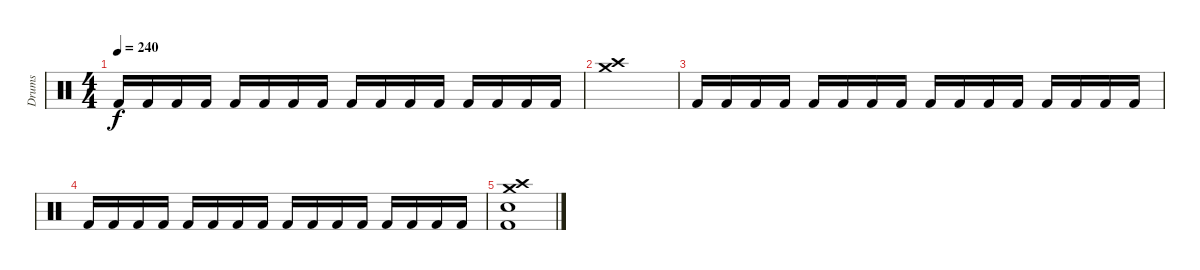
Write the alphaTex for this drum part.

\track ("Drums" "Drums") {instrument percussion}
\staff {score}
\articulation defaults
\ts (4 4)
\tempo 240
\clef neutral
\ks c "Kick (hit) 2".16{dy f} "Kick (hit) 2".16 "Kick (hit) 2".16 "Kick (hit) 2".16 "Kick (hit) 2".16 "Kick (hit) 2".16 "Kick (hit) 2".16 "Kick (hit) 2".16 "Kick (hit) 2".16 "Kick (hit) 2".16 "Kick (hit) 2".16 "Kick (hit) 2".16 "Kick (hit) 2".16 "Kick (hit) 2".16 "Kick (hit) 2".16 "Kick (hit) 2".16
|
("Crash medium (hit)" "Crash high (hit)").1 |
"Kick (hit) 2".16 "Kick (hit) 2".16 "Kick (hit) 2".16 "Kick (hit) 2".16 "Kick (hit) 2".16 "Kick (hit) 2".16 "Kick (hit) 2".16 "Kick (hit) 2".16 "Kick (hit) 2".16 "Kick (hit) 2".16 "Kick (hit) 2".16 "Kick (hit) 2".16 "Kick (hit) 2".16 "Kick (hit) 2".16 "Kick (hit) 2".16 "Kick (hit) 2".16 |
"Kick (hit) 2".16 "Kick (hit) 2".16 "Kick (hit) 2".16 "Kick (hit) 2".16 "Kick (hit) 2".16 "Kick (hit) 2".16 "Kick (hit) 2".16 "Kick (hit) 2".16 "Kick (hit) 2".16 "Kick (hit) 2".16 "Kick (hit) 2".16 "Kick (hit) 2".16 "Kick (hit) 2".16 "Kick (hit) 2".16 "Kick (hit) 2".16 "Kick (hit) 2".16 |
("Crash medium (hit)" "Crash high (hit)" "Electric Snare (hit)" "Kick (hit) 2").1
